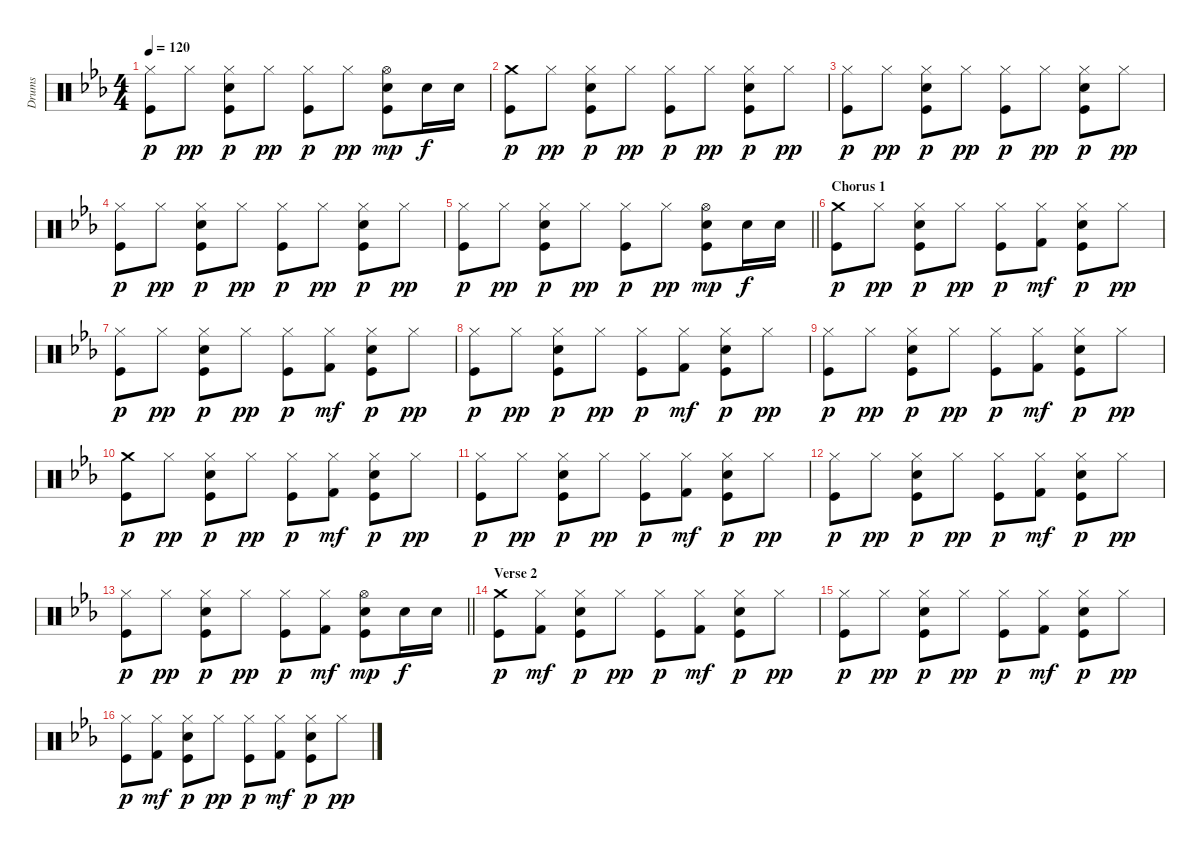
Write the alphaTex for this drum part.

\track ("Drums" "Drums") {instrument percussion}
\staff {score}
\articulation defaults
\ts (4 4)
\tempo 120
\clef neutral
\ks cminor
("Hi-Hat (closed)" "Kick (hit)").8{dy p} "Hi-Hat (closed)".8{dy pp} ("Hi-Hat (closed)" "Electric Snare (hit)" "Kick (hit)").8{dy p} "Hi-Hat (closed)".8{dy pp} ("Hi-Hat (closed)" "Kick (hit)").8{dy p} "Hi-Hat (closed)".8{dy pp} ("Hi-Hat (open)" "Electric Snare (hit)" "Kick (hit)").8{dy mp} "Electric Snare (hit)".16{dy f} "Electric Snare (hit)".16 |
("Crash medium (hit)" "Kick (hit)").8{dy p} "Hi-Hat (closed)".8{dy pp} ("Hi-Hat (closed)" "Electric Snare (hit)" "Kick (hit)").8{dy p} "Hi-Hat (closed)".8{dy pp} ("Hi-Hat (closed)" "Kick (hit)").8{dy p} "Hi-Hat (closed)".8{dy pp} ("Hi-Hat (closed)" "Electric Snare (hit)" "Kick (hit)").8{dy p} "Hi-Hat (closed)".8{dy pp} |
("Hi-Hat (closed)" "Kick (hit)").8{dy p} "Hi-Hat (closed)".8{dy pp} ("Hi-Hat (closed)" "Electric Snare (hit)" "Kick (hit)").8{dy p} "Hi-Hat (closed)".8{dy pp} ("Hi-Hat (closed)" "Kick (hit)").8{dy p} "Hi-Hat (closed)".8{dy pp} ("Hi-Hat (closed)" "Electric Snare (hit)" "Kick (hit)").8{dy p} "Hi-Hat (closed)".8{dy pp} |
("Hi-Hat (closed)" "Kick (hit)").8{dy p} "Hi-Hat (closed)".8{dy pp} ("Hi-Hat (closed)" "Electric Snare (hit)" "Kick (hit)").8{dy p} "Hi-Hat (closed)".8{dy pp} ("Hi-Hat (closed)" "Kick (hit)").8{dy p} "Hi-Hat (closed)".8{dy pp} ("Hi-Hat (closed)" "Electric Snare (hit)" "Kick (hit)").8{dy p} "Hi-Hat (closed)".8{dy pp} |
\barLineRight lightlight
("Hi-Hat (closed)" "Kick (hit)").8{dy p} "Hi-Hat (closed)".8{dy pp} ("Hi-Hat (closed)" "Electric Snare (hit)" "Kick (hit)").8{dy p} "Hi-Hat (closed)".8{dy pp} ("Hi-Hat (closed)" "Kick (hit)").8{dy p} "Hi-Hat (closed)".8{dy pp} ("Hi-Hat (open)" "Electric Snare (hit)" "Kick (hit)").8{dy mp} "Electric Snare (hit)".16{dy f} "Electric Snare (hit)".16 |
\section ("" "Chorus 1")
("Crash medium (hit)" "Kick (hit)").8{dy p} "Hi-Hat (closed)".8{dy pp} ("Hi-Hat (closed)" "Electric Snare (hit)" "Kick (hit)").8{dy p} "Hi-Hat (closed)".8{dy pp} ("Hi-Hat (closed)" "Kick (hit)").8{dy p} ("Hi-Hat (closed)" "Kick (hit) 2").8{dy mf} ("Hi-Hat (closed)" "Electric Snare (hit)" "Kick (hit)").8{dy p} "Hi-Hat (closed)".8{dy pp} |
("Hi-Hat (closed)" "Kick (hit)").8{dy p} "Hi-Hat (closed)".8{dy pp} ("Hi-Hat (closed)" "Electric Snare (hit)" "Kick (hit)").8{dy p} "Hi-Hat (closed)".8{dy pp} ("Hi-Hat (closed)" "Kick (hit)").8{dy p} ("Hi-Hat (closed)" "Kick (hit) 2").8{dy mf} ("Hi-Hat (closed)" "Electric Snare (hit)" "Kick (hit)").8{dy p} "Hi-Hat (closed)".8{dy pp} |
("Hi-Hat (closed)" "Kick (hit)").8{dy p} "Hi-Hat (closed)".8{dy pp} ("Hi-Hat (closed)" "Electric Snare (hit)" "Kick (hit)").8{dy p} "Hi-Hat (closed)".8{dy pp} ("Hi-Hat (closed)" "Kick (hit)").8{dy p} ("Hi-Hat (closed)" "Kick (hit) 2").8{dy mf} ("Hi-Hat (closed)" "Electric Snare (hit)" "Kick (hit)").8{dy p} "Hi-Hat (closed)".8{dy pp} |
("Hi-Hat (closed)" "Kick (hit)").8{dy p} "Hi-Hat (closed)".8{dy pp} ("Hi-Hat (closed)" "Electric Snare (hit)" "Kick (hit)").8{dy p} "Hi-Hat (closed)".8{dy pp} ("Hi-Hat (closed)" "Kick (hit)").8{dy p} ("Hi-Hat (closed)" "Kick (hit) 2").8{dy mf} ("Hi-Hat (closed)" "Electric Snare (hit)" "Kick (hit)").8{dy p} "Hi-Hat (closed)".8{dy pp} |
("Crash medium (hit)" "Kick (hit)").8{dy p} "Hi-Hat (closed)".8{dy pp} ("Hi-Hat (closed)" "Electric Snare (hit)" "Kick (hit)").8{dy p} "Hi-Hat (closed)".8{dy pp} ("Hi-Hat (closed)" "Kick (hit)").8{dy p} ("Hi-Hat (closed)" "Kick (hit) 2").8{dy mf} ("Hi-Hat (closed)" "Electric Snare (hit)" "Kick (hit)").8{dy p} "Hi-Hat (closed)".8{dy pp} |
("Hi-Hat (closed)" "Kick (hit)").8{dy p} "Hi-Hat (closed)".8{dy pp} ("Hi-Hat (closed)" "Electric Snare (hit)" "Kick (hit)").8{dy p} "Hi-Hat (closed)".8{dy pp} ("Hi-Hat (closed)" "Kick (hit)").8{dy p} ("Hi-Hat (closed)" "Kick (hit) 2").8{dy mf} ("Hi-Hat (closed)" "Electric Snare (hit)" "Kick (hit)").8{dy p} "Hi-Hat (closed)".8{dy pp} |
("Hi-Hat (closed)" "Kick (hit)").8{dy p} "Hi-Hat (closed)".8{dy pp} ("Hi-Hat (closed)" "Electric Snare (hit)" "Kick (hit)").8{dy p} "Hi-Hat (closed)".8{dy pp} ("Hi-Hat (closed)" "Kick (hit)").8{dy p} ("Hi-Hat (closed)" "Kick (hit) 2").8{dy mf} ("Hi-Hat (closed)" "Electric Snare (hit)" "Kick (hit)").8{dy p} "Hi-Hat (closed)".8{dy pp} |
\barLineRight lightlight
("Hi-Hat (closed)" "Kick (hit)").8{dy p} "Hi-Hat (closed)".8{dy pp} ("Hi-Hat (closed)" "Electric Snare (hit)" "Kick (hit)").8{dy p} "Hi-Hat (closed)".8{dy pp} ("Hi-Hat (closed)" "Kick (hit)").8{dy p} ("Hi-Hat (closed)" "Kick (hit) 2").8{dy mf} ("Hi-Hat (open)" "Electric Snare (hit)" "Kick (hit)").8{dy mp} "Electric Snare (hit)".16{dy f} "Electric Snare (hit)".16 |
\section ("" "Verse 2")
("Crash medium (hit)" "Kick (hit)").8{dy p} ("Hi-Hat (closed)" "Kick (hit) 2").8{dy mf} ("Hi-Hat (closed)" "Electric Snare (hit)" "Kick (hit)").8{dy p} "Hi-Hat (closed)".8{dy pp} ("Hi-Hat (closed)" "Kick (hit)").8{dy p} ("Hi-Hat (closed)" "Kick (hit) 2").8{dy mf} ("Hi-Hat (closed)" "Electric Snare (hit)" "Kick (hit)").8{dy p} "Hi-Hat (closed)".8{dy pp} |
("Hi-Hat (closed)" "Kick (hit)").8{dy p} "Hi-Hat (closed)".8{dy pp} ("Hi-Hat (closed)" "Electric Snare (hit)" "Kick (hit)").8{dy p} "Hi-Hat (closed)".8{dy pp} ("Hi-Hat (closed)" "Kick (hit)").8{dy p} ("Hi-Hat (closed)" "Kick (hit) 2").8{dy mf} ("Hi-Hat (closed)" "Electric Snare (hit)" "Kick (hit)").8{dy p} "Hi-Hat (closed)".8{dy pp} |
("Hi-Hat (closed)" "Kick (hit)").8{dy p} ("Hi-Hat (closed)" "Kick (hit) 2").8{dy mf} ("Hi-Hat (closed)" "Electric Snare (hit)" "Kick (hit)").8{dy p} "Hi-Hat (closed)".8{dy pp} ("Hi-Hat (closed)" "Kick (hit)").8{dy p} ("Hi-Hat (closed)" "Kick (hit) 2").8{dy mf} ("Hi-Hat (closed)" "Electric Snare (hit)" "Kick (hit)").8{dy p} "Hi-Hat (closed)".8{dy pp}
